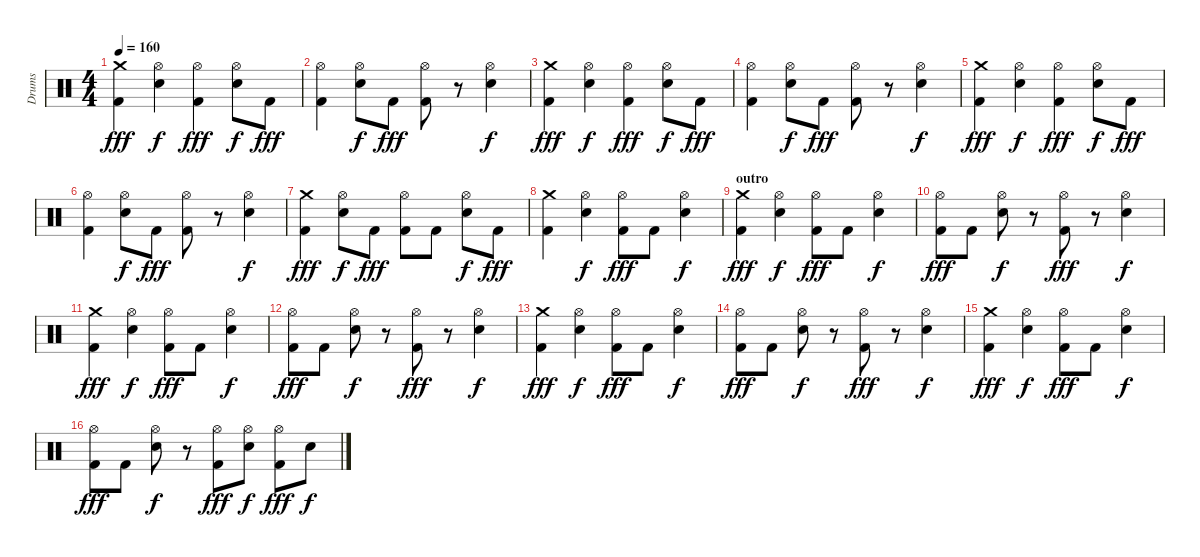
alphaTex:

\track ("Drums" "Drums") {instrument percussion}
\staff {score}
\articulation defaults
\ts (4 4)
\tempo 160
\clef neutral
\ks c
("Crash medium (hit)" "Kick (hit) 2").4{dy fff} ("Hi-Hat (open)" "Electric Snare (hit)").4{dy f} ("Hi-Hat (open)" "Kick (hit) 2").4{dy fff} ("Hi-Hat (open)" "Electric Snare (hit)").8{dy f} "Kick (hit) 2".8{dy fff} |
("Hi-Hat (open)" "Kick (hit) 2").4 ("Hi-Hat (open)" "Electric Snare (hit)").8{dy f} "Kick (hit) 2".8{dy fff} ("Hi-Hat (open)" "Kick (hit) 2").8 r.8 ("Hi-Hat (open)" "Electric Snare (hit)").4{dy f} |
("Crash medium (hit)" "Kick (hit) 2").4{dy fff} ("Hi-Hat (open)" "Electric Snare (hit)").4{dy f} ("Hi-Hat (open)" "Kick (hit) 2").4{dy fff} ("Hi-Hat (open)" "Electric Snare (hit)").8{dy f} "Kick (hit) 2".8{dy fff} |
("Hi-Hat (open)" "Kick (hit) 2").4 ("Hi-Hat (open)" "Electric Snare (hit)").8{dy f} "Kick (hit) 2".8{dy fff} ("Hi-Hat (open)" "Kick (hit) 2").8 r.8 ("Hi-Hat (open)" "Electric Snare (hit)").4{dy f} |
("Crash medium (hit)" "Kick (hit) 2").4{dy fff} ("Hi-Hat (open)" "Electric Snare (hit)").4{dy f} ("Hi-Hat (open)" "Kick (hit) 2").4{dy fff} ("Hi-Hat (open)" "Electric Snare (hit)").8{dy f} "Kick (hit) 2".8{dy fff} |
("Hi-Hat (open)" "Kick (hit) 2").4 ("Hi-Hat (open)" "Electric Snare (hit)").8{dy f} "Kick (hit) 2".8{dy fff} ("Hi-Hat (open)" "Kick (hit) 2").8 r.8 ("Hi-Hat (open)" "Electric Snare (hit)").4{dy f} |
("Crash medium (hit)" "Kick (hit) 2").4{dy fff} ("Hi-Hat (open)" "Electric Snare (hit)").8{dy f} "Kick (hit) 2".8{dy fff} ("Hi-Hat (open)" "Kick (hit) 2").8 "Kick (hit) 2".8 ("Hi-Hat (open)" "Electric Snare (hit)").8{dy f} "Kick (hit) 2".8{dy fff} |
("Crash medium (hit)" "Kick (hit) 2").4 ("Hi-Hat (open)" "Electric Snare (hit)").4{dy f} ("Hi-Hat (open)" "Kick (hit) 2").8{dy fff} "Kick (hit) 2".8 ("Hi-Hat (open)" "Electric Snare (hit)").4{dy f} |
\section ("" "outro")
("Crash medium (hit)" "Kick (hit) 2").4{dy fff} ("Hi-Hat (open)" "Electric Snare (hit)").4{dy f} ("Hi-Hat (open)" "Kick (hit) 2").8{dy fff} "Kick (hit) 2".8 ("Hi-Hat (open)" "Electric Snare (hit)").4{dy f} |
("Hi-Hat (open)" "Kick (hit) 2").8{dy fff} "Kick (hit) 2".8 ("Hi-Hat (open)" "Electric Snare (hit)").8{dy f} r.8 ("Hi-Hat (open)" "Kick (hit) 2").8{dy fff} r.8 ("Hi-Hat (open)" "Electric Snare (hit)").4{dy f} |
("Crash medium (hit)" "Kick (hit) 2").4{dy fff} ("Hi-Hat (open)" "Electric Snare (hit)").4{dy f} ("Hi-Hat (open)" "Kick (hit) 2").8{dy fff} "Kick (hit) 2".8 ("Hi-Hat (open)" "Electric Snare (hit)").4{dy f} |
("Hi-Hat (open)" "Kick (hit) 2").8{dy fff} "Kick (hit) 2".8 ("Hi-Hat (open)" "Electric Snare (hit)").8{dy f} r.8 ("Hi-Hat (open)" "Kick (hit) 2").8{dy fff} r.8 ("Hi-Hat (open)" "Electric Snare (hit)").4{dy f} |
("Crash medium (hit)" "Kick (hit) 2").4{dy fff} ("Hi-Hat (open)" "Electric Snare (hit)").4{dy f} ("Hi-Hat (open)" "Kick (hit) 2").8{dy fff} "Kick (hit) 2".8 ("Hi-Hat (open)" "Electric Snare (hit)").4{dy f} |
("Hi-Hat (open)" "Kick (hit) 2").8{dy fff} "Kick (hit) 2".8 ("Hi-Hat (open)" "Electric Snare (hit)").8{dy f} r.8 ("Hi-Hat (open)" "Kick (hit) 2").8{dy fff} r.8 ("Hi-Hat (open)" "Electric Snare (hit)").4{dy f} |
("Crash medium (hit)" "Kick (hit) 2").4{dy fff} ("Hi-Hat (open)" "Electric Snare (hit)").4{dy f} ("Hi-Hat (open)" "Kick (hit) 2").8{dy fff} "Kick (hit) 2".8 ("Hi-Hat (open)" "Electric Snare (hit)").4{dy f} |
("Hi-Hat (open)" "Kick (hit) 2").8{dy fff} "Kick (hit) 2".8 ("Hi-Hat (open)" "Electric Snare (hit)").8{dy f} r.8 ("Hi-Hat (open)" "Kick (hit) 2").8{dy fff} ("Hi-Hat (open)" "Electric Snare (hit)").8{dy f} ("Hi-Hat (open)" "Kick (hit) 2").8{dy fff} "Electric Snare (hit)".8{dy f}
